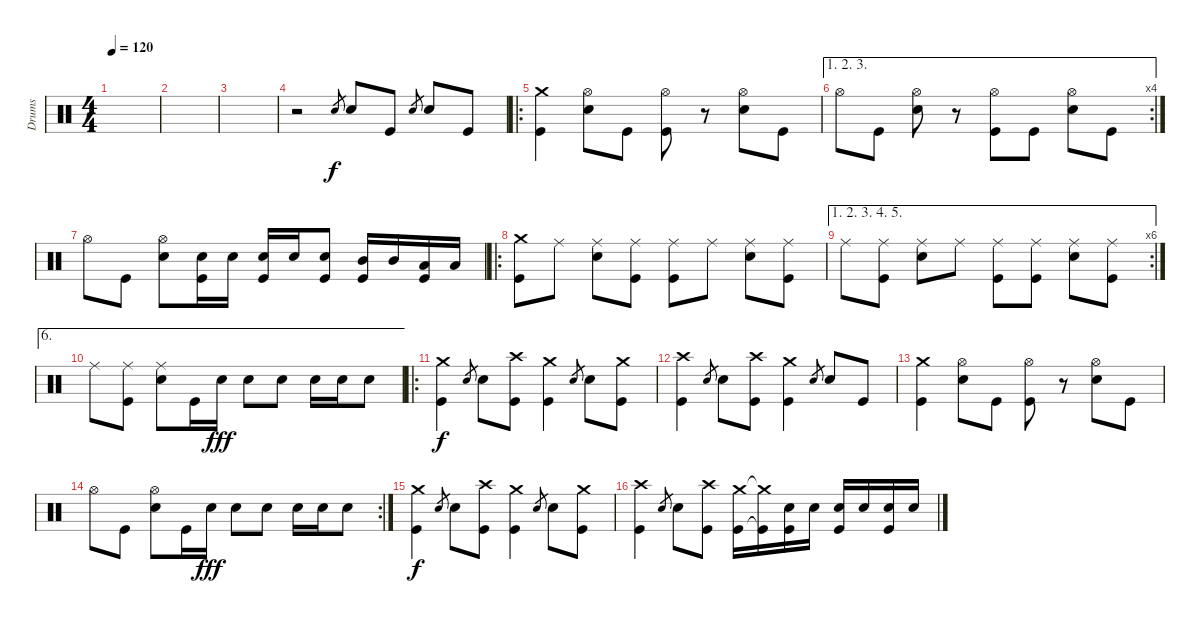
\track ("Drums" "Drums") {instrument percussion}
\staff {score}
\articulation defaults
\ts (4 4)
\tempo 120
\clef neutral
\ks c
|
|
|
r.2 "Snare (hit) 2".8{gr} "Snare (hit) 2".8 "Kick (hit)".8 "Snare (hit) 2".8{gr} "Snare (hit) 2".8 "Kick (hit)".8 |
\ro
("Crash medium (hit)" "Kick (hit)").4 ("Hi-Hat (open)" "Snare (hit) 2").8 "Kick (hit)".8 ("Hi-Hat (open)" "Kick (hit)").8 r.8 ("Hi-Hat (open)" "Snare (hit) 2").8 "Kick (hit)".8 |
\ae (1 2 3)
\rc 4 "Hi-Hat (open)".8 "Kick (hit)".8
("Hi-Hat (open)" "Snare (hit) 2").8 r.8 ("Hi-Hat (open)" "Kick (hit)").8 "Kick (hit)".8 ("Hi-Hat (open)" "Snare (hit) 2").8 "Kick (hit)".8 |
"Hi-Hat (open)".8 "Kick (hit)".8 ("Hi-Hat (open)" "Snare (hit) 2").8 ("Snare (hit) 2" "Kick (hit)").16 "Snare (hit) 2".16 ("Snare (hit) 2" "Kick (hit)").16 "Snare (hit) 2".16 ("Snare (hit) 2" "Kick (hit)").8 ("Mid Tom (hit)" "Kick (hit)").16 "Mid Tom (hit)".16 ("Low Tom (hit)" "Kick (hit)").16 "Low Tom (hit)".16 |
\ro
("Crash medium (hit)" "Kick (hit)").8 "Ride (middle)".8 ("Ride (middle)" "Snare (hit) 2").8 ("Ride (middle)" "Kick (hit)").8 ("Ride (middle)" "Kick (hit)").8 "Ride (middle)".8 ("Ride (middle)" "Snare (hit) 2").8 ("Ride (middle)" "Kick (hit)").8 |
\ae (1 2 3 4 5)
\rc 6 "Ride (middle)".8
("Ride (middle)" "Kick (hit)").8 ("Ride (middle)" "Snare (hit) 2").8 "Ride (middle)".8 ("Ride (middle)" "Kick (hit)").8 ("Ride (middle)" "Kick (hit)").8 ("Ride (middle)" "Snare (hit) 2").8 ("Ride (middle)" "Kick (hit)").8 |
\ae 6 "Ride (middle)".8
("Ride (middle)" "Kick (hit)").8 ("Ride (middle)" "Snare (hit) 2").8 "Kick (hit)".16 "Snare (hit) 2".16{dy fff} "Snare (hit) 2".8 "Snare (hit) 2".8 "Snare (hit) 2".16 "Snare (hit) 2".16 "Snare (hit) 2".8 |
\ro
("Crash medium (hit)" "Kick (hit)").4{dy f} "Snare (hit) 2".8{gr} "Snare (hit) 2".8 ("Kick (hit)" "Crash high (hit)").8 ("Kick (hit)" "Crash medium (hit)").4 "Snare (hit) 2".8{gr} "Snare (hit) 2".8 ("Kick (hit)" "Crash medium (hit)").8 |
("Kick (hit)" "Crash high (hit)").4 "Snare (hit) 2".8{gr} "Snare (hit) 2".8 ("Kick (hit)" "Crash high (hit)").8 ("Kick (hit)" "Crash medium (hit)").4 "Snare (hit) 2".8{gr} "Snare (hit) 2".8 "Kick (hit)".8 |
("Crash medium (hit)" "Kick (hit)").4 ("Hi-Hat (open)" "Snare (hit) 2").8 "Kick (hit)".8 ("Hi-Hat (open)" "Kick (hit)").8 r.8 ("Hi-Hat (open)" "Snare (hit) 2").8 "Kick (hit)".8 |
\rc 2 "Hi-Hat (open)".8 "Kick (hit)".8
("Hi-Hat (open)" "Snare (hit) 2").8 "Kick (hit)".16 "Snare (hit) 2".16{dy fff} "Snare (hit) 2".8 "Snare (hit) 2".8 "Snare (hit) 2".16 "Snare (hit) 2".16 "Snare (hit) 2".8 |
("Crash medium (hit)" "Kick (hit)").4{dy f} "Snare (hit) 2".8{gr} "Snare (hit) 2".8 ("Kick (hit)" "Crash high (hit)").8 ("Kick (hit)" "Crash medium (hit)").4 "Snare (hit) 2".8{gr} "Snare (hit) 2".8 ("Kick (hit)" "Crash medium (hit)").8 |
("Kick (hit)" "Crash high (hit)").4 "Snare (hit) 2".8{gr} "Snare (hit) 2".8 ("Kick (hit)" "Crash high (hit)").8 ("Kick (hit)" "Crash medium (hit)").16 ("Kick (hit)"{t} "Crash medium (hit)"{t}).16 ("Snare (hit) 2" "Kick (hit)").16 "Snare (hit) 2".16 ("Snare (hit) 2" "Kick (hit)").16 "Snare (hit) 2".16 ("Snare (hit) 2" "Kick (hit)").16 "Snare (hit) 2".16
